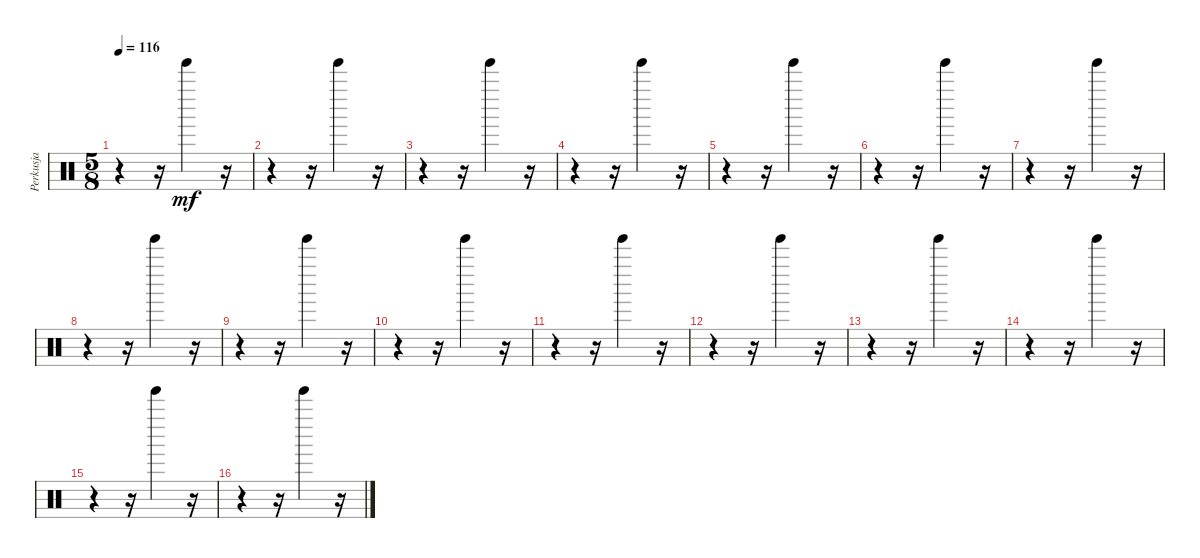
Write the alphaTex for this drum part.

\track ("Perkusja" "Perkusja") {instrument percussion}
\staff {score}
\articulation defaults
\ts (5 8)
\tempo 116
\clef neutral
\ks c
r.4{dy mf} r.16 "Tinkle Bell (hit)".4 r.16 |
r.4 r.16 "Tinkle Bell (hit)".4 r.16 |
r.4 r.16 "Tinkle Bell (hit)".4 r.16 |
r.4 r.16 "Tinkle Bell (hit)".4 r.16 |
r.4 r.16 "Tinkle Bell (hit)".4 r.16 |
r.4 r.16 "Tinkle Bell (hit)".4 r.16 |
r.4 r.16 "Tinkle Bell (hit)".4 r.16 |
r.4 r.16 "Tinkle Bell (hit)".4 r.16 |
r.4 r.16 "Tinkle Bell (hit)".4 r.16 |
r.4 r.16 "Tinkle Bell (hit)".4 r.16 |
r.4 r.16 "Tinkle Bell (hit)".4 r.16 |
r.4 r.16 "Tinkle Bell (hit)".4 r.16 |
r.4 r.16 "Tinkle Bell (hit)".4 r.16 |
r.4 r.16 "Tinkle Bell (hit)".4 r.16 |
r.4 r.16 "Tinkle Bell (hit)".4 r.16 |
r.4 r.16 "Tinkle Bell (hit)".4 r.16
